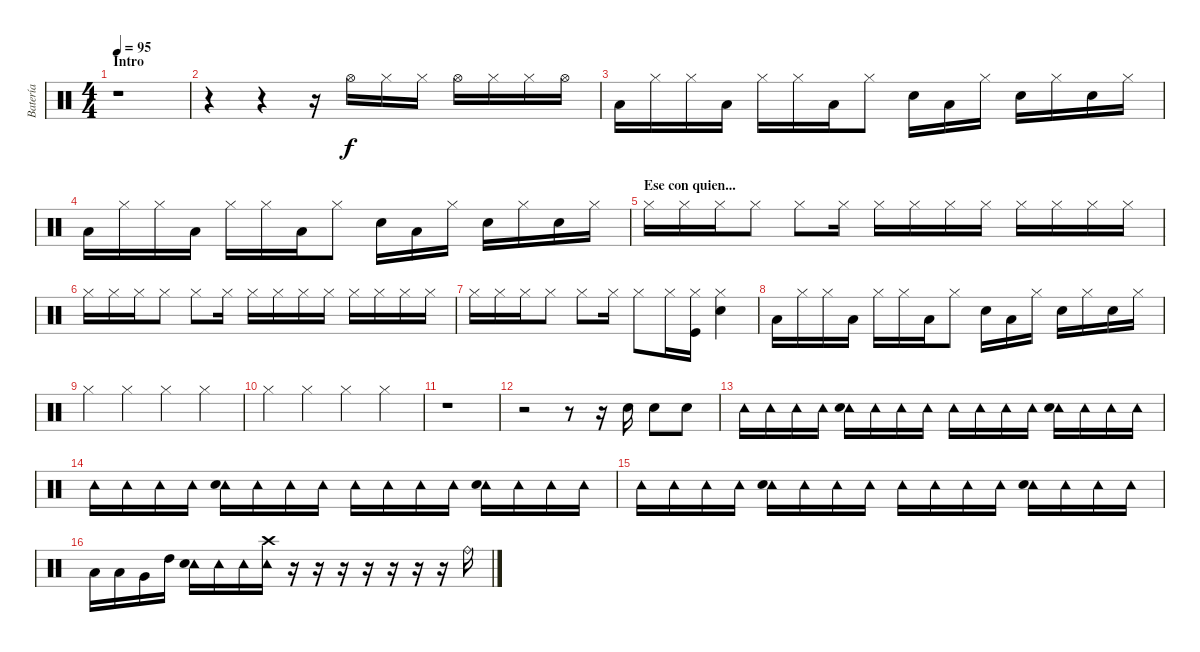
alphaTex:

\track ("Batería" "Batería") {instrument percussion}
\staff {score}
\articulation defaults
\ts (4 4)
\section ("" "Intro")
\tempo 95
\clef neutral
\ks c
r.1{dy f} |
r.4 r.4 r.16 "Hi-Hat (open)".16 "Hi-Hat (closed)".16 "Hi-Hat (closed)".16 "Hi-Hat (open)".16 "Hi-Hat (closed)".16 "Hi-Hat (closed)".16 "Hi-Hat (open)".16 |
"Low Floor Tom (hit)".16 "Hi-Hat (closed)".16 "Hi-Hat (closed)".16 "Low Floor Tom (hit)".16 "Hi-Hat (closed)".16 "Hi-Hat (closed)".16 "Low Floor Tom (hit)".16 "Hi-Hat (closed)".8 "Snare (hit) 2".16 "Low Floor Tom (hit)".16 "Hi-Hat (closed)".16 "Snare (hit) 2".16 "Hi-Hat (closed)".16 "Snare (hit) 2".16 "Hi-Hat (closed)".16 |
"Low Floor Tom (hit)".16 "Hi-Hat (closed)".16 "Hi-Hat (closed)".16 "Low Floor Tom (hit)".16 "Hi-Hat (closed)".16 "Hi-Hat (closed)".16 "Low Floor Tom (hit)".16 "Hi-Hat (closed)".8 "Snare (hit) 2".16 "Low Floor Tom (hit)".16 "Hi-Hat (closed)".16 "Snare (hit) 2".16 "Hi-Hat (closed)".16 "Snare (hit) 2".16 "Hi-Hat (closed)".16 |
\section ("" "Ese con quien...")
"Hi-Hat (closed)".16 "Hi-Hat (closed)".16 "Hi-Hat (closed)".16 "Hi-Hat (closed)".8 "Hi-Hat (closed)".8 "Hi-Hat (closed)".16 "Hi-Hat (closed)".16 "Hi-Hat (closed)".16 "Hi-Hat (closed)".16 "Hi-Hat (closed)".16 "Hi-Hat (closed)".16 "Hi-Hat (closed)".16 "Hi-Hat (closed)".16 "Hi-Hat (closed)".16 |
"Hi-Hat (closed)".16 "Hi-Hat (closed)".16 "Hi-Hat (closed)".16 "Hi-Hat (closed)".8 "Hi-Hat (closed)".8 "Hi-Hat (closed)".16 "Hi-Hat (closed)".16 "Hi-Hat (closed)".16 "Hi-Hat (closed)".16 "Hi-Hat (closed)".16 "Hi-Hat (closed)".16 "Hi-Hat (closed)".16 "Hi-Hat (closed)".16 "Hi-Hat (closed)".16 |
"Hi-Hat (closed)".16 "Hi-Hat (closed)".16 "Hi-Hat (closed)".16 "Hi-Hat (closed)".8 "Hi-Hat (closed)".8 "Hi-Hat (closed)".16 "Hi-Hat (closed)".8 "Hi-Hat (closed)".16 ("Hi-Hat (closed)" "Kick (hit)").16 ("Hi-Hat (closed)" "Snare (hit) 2").4 |
"Low Floor Tom (hit)".16 "Hi-Hat (closed)".16 "Hi-Hat (closed)".16 "Low Floor Tom (hit)".16 "Hi-Hat (closed)".16 "Hi-Hat (closed)".16 "Low Floor Tom (hit)".16 "Hi-Hat (closed)".8 "Snare (hit) 2".16 "Low Floor Tom (hit)".16 "Hi-Hat (closed)".16 "Snare (hit) 2".16 "Hi-Hat (closed)".16 "Snare (hit) 2".16 "Hi-Hat (closed)".16 |
"Hi-Hat (closed)".4 "Hi-Hat (closed)".4 "Hi-Hat (closed)".4 "Hi-Hat (closed)".4 |
"Hi-Hat (closed)".4 "Hi-Hat (closed)".4 "Hi-Hat (closed)".4 "Hi-Hat (closed)".4 |
r.1 |
r.2 r.8 r.16 "Snare (hit) 2".16 "Snare (hit) 2".8 "Snare (hit) 2".8 |
"Tambourine (hit)".16 "Tambourine (hit)".16 "Tambourine (hit)".16 "Tambourine (hit)".16 ("Tambourine (hit)" "Snare (hit) 2").16 "Tambourine (hit)".16 "Tambourine (hit)".16 "Tambourine (hit)".16 "Tambourine (hit)".16 "Tambourine (hit)".16 "Tambourine (hit)".16 "Tambourine (hit)".16 ("Tambourine (hit)" "Snare (hit) 2").16 "Tambourine (hit)".16 "Tambourine (hit)".16 "Tambourine (hit)".16 |
"Tambourine (hit)".16 "Tambourine (hit)".16 "Tambourine (hit)".16 "Tambourine (hit)".16 ("Tambourine (hit)" "Snare (hit) 2").16 "Tambourine (hit)".16 "Tambourine (hit)".16 "Tambourine (hit)".16 "Tambourine (hit)".16 "Tambourine (hit)".16 "Tambourine (hit)".16 "Tambourine (hit)".16 ("Tambourine (hit)" "Snare (hit) 2").16 "Tambourine (hit)".16 "Tambourine (hit)".16 "Tambourine (hit)".16 |
"Tambourine (hit)".16 "Tambourine (hit)".16 "Tambourine (hit)".16 "Tambourine (hit)".16 ("Tambourine (hit)" "Snare (hit) 2").16 "Tambourine (hit)".16 "Tambourine (hit)".16 "Tambourine (hit)".16 "Tambourine (hit)".16 "Tambourine (hit)".16 "Tambourine (hit)".16 "Tambourine (hit)".16 ("Tambourine (hit)" "Snare (hit) 2").16 "Tambourine (hit)".16 "Tambourine (hit)".16 "Tambourine (hit)".16 |
"Low Floor Tom (hit)".16 "Low Tom (hit)".16 "Very Low Tom (hit)".16 "High Tom (hit)".16 ("Tambourine (hit)" "Snare (hit) 2").16 "Tambourine (hit)".16 "Tambourine (hit)".16 ("Tambourine (hit)" "Crash high (hit)").16 r.16 r.16 r.16 r.16 r.16 r.16 r.16 "Ride (bell)".16
